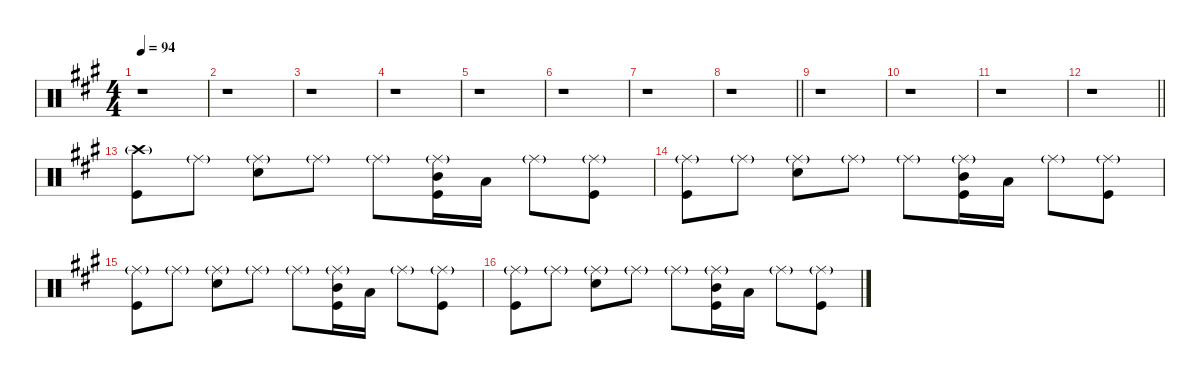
\defaultSystemsLayout 4
\hideDynamics
\bracketExtendMode nobrackets
\singleTrackTrackNamePolicy hidden
\multiTrackTrackNamePolicy hidden
\firstSystemTrackNameMode fullname
\firstSystemTrackNameOrientation horizontal
\otherSystemsTrackNameOrientation horizontal
\track ("Percussion" "drm.") {defaultSystemsLayout 4 instrument percussion}
\staff {score}
\articulation defaults
\ts (4 4)
\tempo 94
\clef neutral
\ks a
r.1{dy f beam Down} |
r.1{beam Down} |
r.1{beam Down} |
r.1{beam Down} |
r.1{beam Down} |
r.1{beam Down} |
r.1{beam Down} |
\barLineRight lightlight
r.1{beam Down} |
r.1{beam Down} |
r.1{beam Down} |
r.1{beam Down} |
\barLineRight lightlight
r.1{beam Down} |
("Crash high (hit)"{g acc forcenatural} "Kick (hit)"{acc forcenatural}).8{beam Down} "Ride (middle)"{g acc forcenatural}.8{dy mf beam Down} ("Ride (middle)"{g acc forcenatural} "Snare (hit) 2"{acc forcenatural}).8{dy f beam Down} "Ride (middle)"{g acc forcenatural}.8{dy mf beam Down} "Ride (middle)"{g acc forcenatural}.8{beam Down} ("Ride (middle)"{g acc forcenatural} "Mid Tom (hit)"{acc forcenatural} "Kick (hit)"{acc forcenatural}).16{dy mp beam Down} "Low Tom (hit)"{acc forcenatural}.16{beam Down} "Ride (middle)"{g acc forcenatural}.8{dy mf beam Down} ("Ride (middle)"{g acc forcenatural} "Kick (hit)"{acc forcenatural}).8{dy f beam Down} |
("Ride (middle)"{g acc forcenatural} "Kick (hit)"{acc forcenatural}).8{beam Down} "Ride (middle)"{g acc forcenatural}.8{dy mf beam Down} ("Ride (middle)"{g acc forcenatural} "Snare (hit) 2"{acc forcenatural}).8{dy f beam Down} "Ride (middle)"{g acc forcenatural}.8{dy mf beam Down} "Ride (middle)"{g acc forcenatural}.8{beam Down} ("Ride (middle)"{g acc forcenatural} "Mid Tom (hit)"{acc forcenatural} "Kick (hit)"{acc forcenatural}).16{dy mp beam Down} "Low Tom (hit)"{acc forcenatural}.16{beam Down} "Ride (middle)"{g acc forcenatural}.8{dy mf beam Down} ("Ride (middle)"{g acc forcenatural} "Kick (hit)"{acc forcenatural}).8{dy f beam Down} |
("Ride (middle)"{g acc forcenatural} "Kick (hit)"{acc forcenatural}).8{beam Down} "Ride (middle)"{g acc forcenatural}.8{dy mf beam Down} ("Ride (middle)"{g acc forcenatural} "Snare (hit) 2"{acc forcenatural}).8{dy f beam Down} "Ride (middle)"{g acc forcenatural}.8{dy mf beam Down} "Ride (middle)"{g acc forcenatural}.8{beam Down} ("Ride (middle)"{g acc forcenatural} "Mid Tom (hit)"{acc forcenatural} "Kick (hit)"{acc forcenatural}).16{dy mp beam Down} "Low Tom (hit)"{acc forcenatural}.16{beam Down} "Ride (middle)"{g acc forcenatural}.8{dy mf beam Down} ("Ride (middle)"{g acc forcenatural} "Kick (hit)"{acc forcenatural}).8{dy f beam Down} |
("Ride (middle)"{g acc forcenatural} "Kick (hit)"{acc forcenatural}).8{beam Down} "Ride (middle)"{g acc forcenatural}.8{dy mf beam Down} ("Ride (middle)"{g acc forcenatural} "Snare (hit) 2"{acc forcenatural}).8{dy f beam Down} "Ride (middle)"{g acc forcenatural}.8{dy mf beam Down} "Ride (middle)"{g acc forcenatural}.8{beam Down} ("Ride (middle)"{g acc forcenatural} "Mid Tom (hit)"{acc forcenatural} "Kick (hit)"{acc forcenatural}).16{dy mp beam Down} "Low Tom (hit)"{acc forcenatural}.16{beam Down} "Ride (middle)"{g acc forcenatural}.8{dy mf beam Down} ("Ride (middle)"{g acc forcenatural} "Kick (hit)"{acc forcenatural}).8{dy f beam Down}
